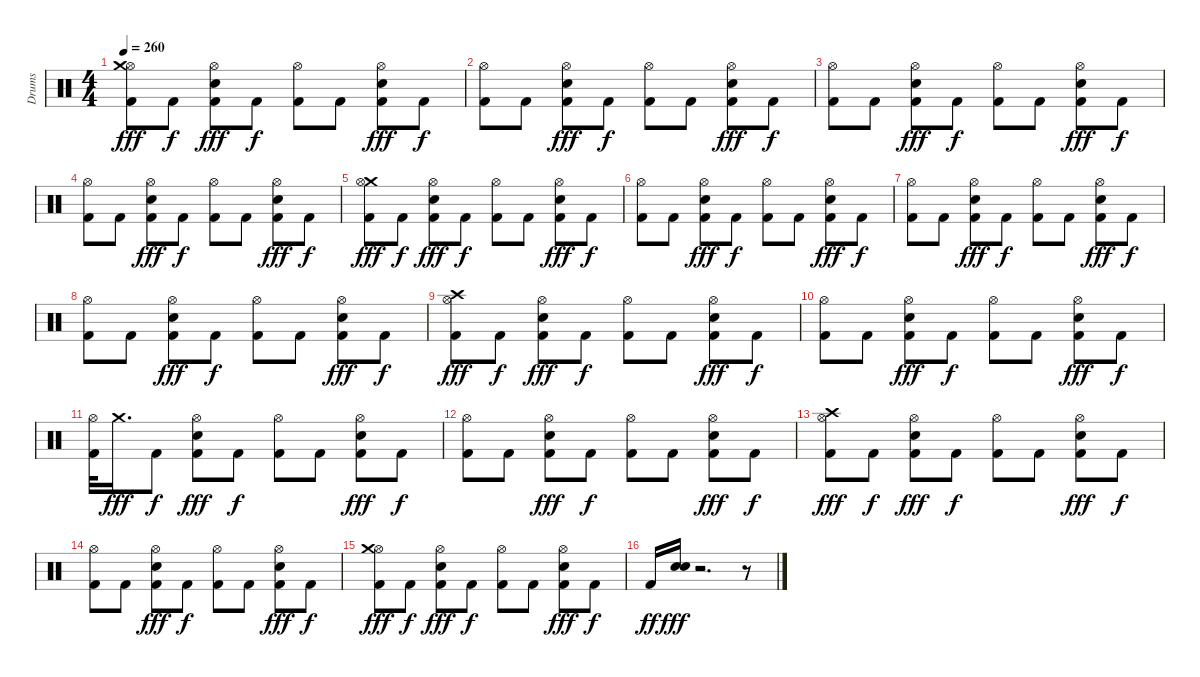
\track ("Drums" "Drums") {instrument percussion}
\staff {score}
\articulation defaults
\ts (4 4)
\tempo 260
\clef neutral
\ks c
("Hi-Hat (open)" "Kick (hit) 2" "Crash medium (hit)").8{dy fff} "Kick (hit) 2".8{dy f} ("Hi-Hat (open)" "Snare (hit) 2" "Kick (hit) 2").8{dy fff} "Kick (hit) 2".8{dy f} ("Hi-Hat (open)" "Kick (hit) 2").8 "Kick (hit) 2".8 ("Hi-Hat (open)" "Snare (hit) 2" "Kick (hit) 2").8{dy fff} "Kick (hit) 2".8{dy f} |
("Hi-Hat (open)" "Kick (hit) 2").8 "Kick (hit) 2".8 ("Hi-Hat (open)" "Snare (hit) 2" "Kick (hit) 2").8{dy fff} "Kick (hit) 2".8{dy f} ("Hi-Hat (open)" "Kick (hit) 2").8 "Kick (hit) 2".8 ("Hi-Hat (open)" "Snare (hit) 2" "Kick (hit) 2").8{dy fff} "Kick (hit) 2".8{dy f} |
("Hi-Hat (open)" "Kick (hit) 2").8 "Kick (hit) 2".8 ("Hi-Hat (open)" "Snare (hit) 2" "Kick (hit) 2").8{dy fff} "Kick (hit) 2".8{dy f} ("Hi-Hat (open)" "Kick (hit) 2").8 "Kick (hit) 2".8 ("Hi-Hat (open)" "Snare (hit) 2" "Kick (hit) 2").8{dy fff} "Kick (hit) 2".8{dy f} |
("Hi-Hat (open)" "Kick (hit) 2").8 "Kick (hit) 2".8 ("Hi-Hat (open)" "Snare (hit) 2" "Kick (hit) 2").8{dy fff} "Kick (hit) 2".8{dy f} ("Hi-Hat (open)" "Kick (hit) 2").8 "Kick (hit) 2".8 ("Hi-Hat (open)" "Snare (hit) 2" "Kick (hit) 2").8{dy fff} "Kick (hit) 2".8{dy f} |
("Crash medium (hit)" "Hi-Hat (open)" "Kick (hit) 2").8{dy fff} "Kick (hit) 2".8{dy f} ("Hi-Hat (open)" "Snare (hit) 2" "Kick (hit) 2").8{dy fff} "Kick (hit) 2".8{dy f} ("Hi-Hat (open)" "Kick (hit) 2").8 "Kick (hit) 2".8 ("Hi-Hat (open)" "Snare (hit) 2" "Kick (hit) 2").8{dy fff} "Kick (hit) 2".8{dy f} |
("Hi-Hat (open)" "Kick (hit) 2").8 "Kick (hit) 2".8 ("Hi-Hat (open)" "Snare (hit) 2" "Kick (hit) 2").8{dy fff} "Kick (hit) 2".8{dy f} ("Hi-Hat (open)" "Kick (hit) 2").8 "Kick (hit) 2".8 ("Hi-Hat (open)" "Snare (hit) 2" "Kick (hit) 2").8{dy fff} "Kick (hit) 2".8{dy f} |
("Hi-Hat (open)" "Kick (hit) 2").8 "Kick (hit) 2".8 ("Hi-Hat (open)" "Snare (hit) 2" "Kick (hit) 2").8{dy fff} "Kick (hit) 2".8{dy f} ("Hi-Hat (open)" "Kick (hit) 2").8 "Kick (hit) 2".8 ("Hi-Hat (open)" "Snare (hit) 2" "Kick (hit) 2").8{dy fff} "Kick (hit) 2".8{dy f} |
("Hi-Hat (open)" "Kick (hit) 2").8 "Kick (hit) 2".8 ("Hi-Hat (open)" "Snare (hit) 2" "Kick (hit) 2").8{dy fff} "Kick (hit) 2".8{dy f} ("Hi-Hat (open)" "Kick (hit) 2").8 "Kick (hit) 2".8 ("Hi-Hat (open)" "Snare (hit) 2" "Kick (hit) 2").8{dy fff} "Kick (hit) 2".8{dy f} |
("Crash high (hit)" "Hi-Hat (open)" "Kick (hit) 2").8{dy fff} "Kick (hit) 2".8{dy f} ("Hi-Hat (open)" "Snare (hit) 2" "Kick (hit) 2").8{dy fff} "Kick (hit) 2".8{dy f} ("Hi-Hat (open)" "Kick (hit) 2").8 "Kick (hit) 2".8 ("Hi-Hat (open)" "Snare (hit) 2" "Kick (hit) 2").8{dy fff} "Kick (hit) 2".8{dy f} |
("Hi-Hat (open)" "Kick (hit) 2").8 "Kick (hit) 2".8 ("Hi-Hat (open)" "Snare (hit) 2" "Kick (hit) 2").8{dy fff} "Kick (hit) 2".8{dy f} ("Hi-Hat (open)" "Kick (hit) 2").8 "Kick (hit) 2".8 ("Hi-Hat (open)" "Snare (hit) 2" "Kick (hit) 2").8{dy fff} "Kick (hit) 2".8{dy f} |
("Hi-Hat (open)" "Kick (hit) 2").32 "Crash medium (hit)".16{d dy fff} "Kick (hit) 2".8{dy f} ("Hi-Hat (open)" "Snare (hit) 2" "Kick (hit) 2").8{dy fff} "Kick (hit) 2".8{dy f} ("Hi-Hat (open)" "Kick (hit) 2").8 "Kick (hit) 2".8 ("Hi-Hat (open)" "Snare (hit) 2" "Kick (hit) 2").8{dy fff} "Kick (hit) 2".8{dy f} |
("Hi-Hat (open)" "Kick (hit) 2").8 "Kick (hit) 2".8 ("Hi-Hat (open)" "Snare (hit) 2" "Kick (hit) 2").8{dy fff} "Kick (hit) 2".8{dy f} ("Hi-Hat (open)" "Kick (hit) 2").8 "Kick (hit) 2".8 ("Hi-Hat (open)" "Snare (hit) 2" "Kick (hit) 2").8{dy fff} "Kick (hit) 2".8{dy f} |
("Hi-Hat (open)" "Kick (hit) 2" "Crash high (hit)").8{dy fff} "Kick (hit) 2".8{dy f} ("Hi-Hat (open)" "Snare (hit) 2" "Kick (hit) 2").8{dy fff} "Kick (hit) 2".8{dy f} ("Hi-Hat (open)" "Kick (hit) 2").8 "Kick (hit) 2".8 ("Hi-Hat (open)" "Snare (hit) 2" "Kick (hit) 2").8{dy fff} "Kick (hit) 2".8{dy f} |
("Hi-Hat (open)" "Kick (hit) 2").8 "Kick (hit) 2".8 ("Hi-Hat (open)" "Snare (hit) 2" "Kick (hit) 2").8{dy fff} "Kick (hit) 2".8{dy f} ("Hi-Hat (open)" "Kick (hit) 2").8 "Kick (hit) 2".8 ("Hi-Hat (open)" "Snare (hit) 2" "Kick (hit) 2").8{dy fff} "Kick (hit) 2".8{dy f} |
("Hi-Hat (open)" "Kick (hit) 2" "Crash medium (hit)").8{dy fff} "Kick (hit) 2".8{dy f} ("Hi-Hat (open)" "Snare (hit) 2" "Kick (hit) 2").8{dy fff} "Kick (hit) 2".8{dy f} ("Hi-Hat (open)" "Kick (hit) 2").8 "Kick (hit) 2".8 ("Hi-Hat (open)" "Snare (hit) 2" "Kick (hit) 2").8{dy fff} "Kick (hit) 2".8{dy f} |
"Kick (hit) 2".16{dy ff} ("Snare (hit) 2" "Electric Snare (hit)").16{dy fff} r.2{d} r.8
